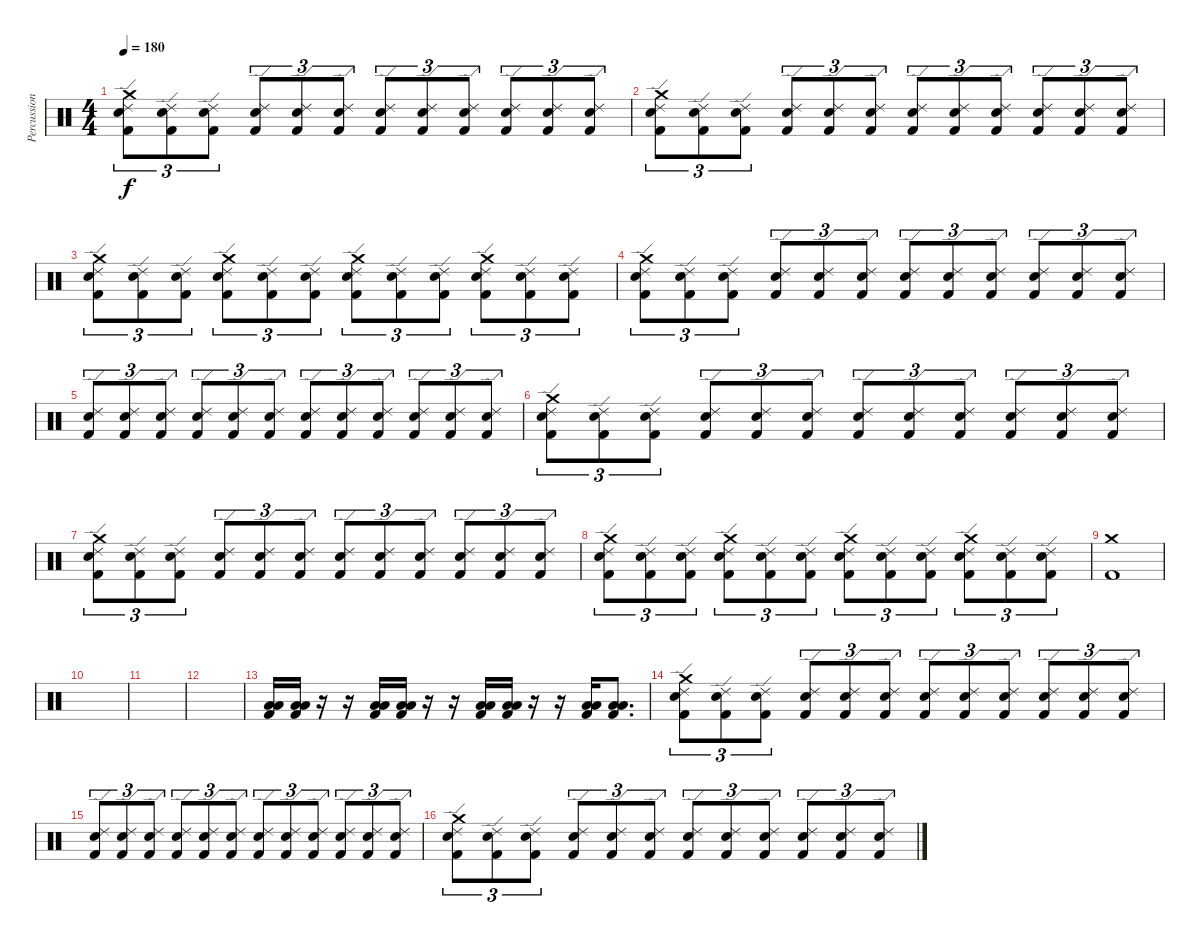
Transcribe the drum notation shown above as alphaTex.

\track ("Percussioni" "Percussion") {instrument percussion}
\staff {score}
\articulation defaults
\ts (4 4)
\tempo 180
\clef neutral
\ks c
("Crash medium (hit)" "Ride (edge) 2" "Snare (hit) 2" "Kick (hit) 2").8{tu (3 2) dy f} ("Ride (edge) 2" "Snare (hit) 2" "Kick (hit) 2").8{tu (3 2)} ("Ride (edge) 2" "Snare (hit) 2" "Kick (hit) 2").8{tu (3 2)} ("Ride (edge) 2" "Snare (hit) 2" "Kick (hit) 2").8{tu (3 2)} ("Ride (edge) 2" "Snare (hit) 2" "Kick (hit) 2").8{tu (3 2)} ("Ride (edge) 2" "Snare (hit) 2" "Kick (hit) 2").8{tu (3 2)} ("Ride (edge) 2" "Snare (hit) 2" "Kick (hit) 2").8{tu (3 2)} ("Ride (edge) 2" "Snare (hit) 2" "Kick (hit) 2").8{tu (3 2)} ("Ride (edge) 2" "Snare (hit) 2" "Kick (hit) 2").8{tu (3 2)} ("Ride (edge) 2" "Snare (hit) 2" "Kick (hit) 2").8{tu (3 2)} ("Ride (edge) 2" "Snare (hit) 2" "Kick (hit) 2").8{tu (3 2)} ("Ride (edge) 2" "Snare (hit) 2" "Kick (hit) 2").8{tu (3 2)} |
("Crash medium (hit)" "Ride (edge) 2" "Snare (hit) 2" "Kick (hit) 2").8{tu (3 2)} ("Ride (edge) 2" "Snare (hit) 2" "Kick (hit) 2").8{tu (3 2)} ("Ride (edge) 2" "Snare (hit) 2" "Kick (hit) 2").8{tu (3 2)} ("Ride (edge) 2" "Snare (hit) 2" "Kick (hit) 2").8{tu (3 2)} ("Ride (edge) 2" "Snare (hit) 2" "Kick (hit) 2").8{tu (3 2)} ("Ride (edge) 2" "Snare (hit) 2" "Kick (hit) 2").8{tu (3 2)} ("Ride (edge) 2" "Snare (hit) 2" "Kick (hit) 2").8{tu (3 2)} ("Ride (edge) 2" "Snare (hit) 2" "Kick (hit) 2").8{tu (3 2)} ("Ride (edge) 2" "Snare (hit) 2" "Kick (hit) 2").8{tu (3 2)} ("Ride (edge) 2" "Snare (hit) 2" "Kick (hit) 2").8{tu (3 2)} ("Ride (edge) 2" "Snare (hit) 2" "Kick (hit) 2").8{tu (3 2)} ("Ride (edge) 2" "Snare (hit) 2" "Kick (hit) 2").8{tu (3 2)} |
("Crash medium (hit)" "Ride (edge) 2" "Snare (hit) 2" "Kick (hit) 2").8{tu (3 2)} ("Ride (edge) 2" "Snare (hit) 2" "Kick (hit) 2").8{tu (3 2)} ("Ride (edge) 2" "Snare (hit) 2" "Kick (hit) 2").8{tu (3 2)} ("Crash medium (hit)" "Ride (edge) 2" "Snare (hit) 2" "Kick (hit) 2").8{tu (3 2)} ("Ride (edge) 2" "Snare (hit) 2" "Kick (hit) 2").8{tu (3 2)} ("Ride (edge) 2" "Snare (hit) 2" "Kick (hit) 2").8{tu (3 2)} ("Crash medium (hit)" "Ride (edge) 2" "Snare (hit) 2" "Kick (hit) 2").8{tu (3 2)} ("Ride (edge) 2" "Snare (hit) 2" "Kick (hit) 2").8{tu (3 2)} ("Ride (edge) 2" "Snare (hit) 2" "Kick (hit) 2").8{tu (3 2)} ("Crash medium (hit)" "Ride (edge) 2" "Snare (hit) 2" "Kick (hit) 2").8{tu (3 2)} ("Ride (edge) 2" "Snare (hit) 2" "Kick (hit) 2").8{tu (3 2)} ("Ride (edge) 2" "Snare (hit) 2" "Kick (hit) 2").8{tu (3 2)} |
("Crash medium (hit)" "Ride (edge) 2" "Snare (hit) 2" "Kick (hit) 2").8{tu (3 2)} ("Ride (edge) 2" "Snare (hit) 2" "Kick (hit) 2").8{tu (3 2)} ("Ride (edge) 2" "Snare (hit) 2" "Kick (hit) 2").8{tu (3 2)} ("Ride (edge) 2" "Snare (hit) 2" "Kick (hit) 2").8{tu (3 2)} ("Ride (edge) 2" "Snare (hit) 2" "Kick (hit) 2").8{tu (3 2)} ("Ride (edge) 2" "Snare (hit) 2" "Kick (hit) 2").8{tu (3 2)} ("Ride (edge) 2" "Snare (hit) 2" "Kick (hit) 2").8{tu (3 2)} ("Ride (edge) 2" "Snare (hit) 2" "Kick (hit) 2").8{tu (3 2)} ("Ride (edge) 2" "Snare (hit) 2" "Kick (hit) 2").8{tu (3 2)} ("Ride (edge) 2" "Snare (hit) 2" "Kick (hit) 2").8{tu (3 2)} ("Ride (edge) 2" "Snare (hit) 2" "Kick (hit) 2").8{tu (3 2)} ("Ride (edge) 2" "Snare (hit) 2" "Kick (hit) 2").8{tu (3 2)} |
("Ride (edge) 2" "Snare (hit) 2" "Kick (hit) 2").8{tu (3 2)} ("Ride (edge) 2" "Snare (hit) 2" "Kick (hit) 2").8{tu (3 2)} ("Ride (edge) 2" "Snare (hit) 2" "Kick (hit) 2").8{tu (3 2)} ("Ride (edge) 2" "Snare (hit) 2" "Kick (hit) 2").8{tu (3 2)} ("Ride (edge) 2" "Snare (hit) 2" "Kick (hit) 2").8{tu (3 2)} ("Ride (edge) 2" "Snare (hit) 2" "Kick (hit) 2").8{tu (3 2)} ("Ride (edge) 2" "Snare (hit) 2" "Kick (hit) 2").8{tu (3 2)} ("Ride (edge) 2" "Snare (hit) 2" "Kick (hit) 2").8{tu (3 2)} ("Ride (edge) 2" "Snare (hit) 2" "Kick (hit) 2").8{tu (3 2)} ("Ride (edge) 2" "Snare (hit) 2" "Kick (hit) 2").8{tu (3 2)} ("Ride (edge) 2" "Snare (hit) 2" "Kick (hit) 2").8{tu (3 2)} ("Ride (edge) 2" "Snare (hit) 2" "Kick (hit) 2").8{tu (3 2)} |
("Crash medium (hit)" "Ride (edge) 2" "Snare (hit) 2" "Kick (hit) 2").8{tu (3 2)} ("Ride (edge) 2" "Snare (hit) 2" "Kick (hit) 2").8{tu (3 2)} ("Ride (edge) 2" "Snare (hit) 2" "Kick (hit) 2").8{tu (3 2)} ("Ride (edge) 2" "Snare (hit) 2" "Kick (hit) 2").8{tu (3 2)} ("Ride (edge) 2" "Snare (hit) 2" "Kick (hit) 2").8{tu (3 2)} ("Ride (edge) 2" "Snare (hit) 2" "Kick (hit) 2").8{tu (3 2)} ("Ride (edge) 2" "Snare (hit) 2" "Kick (hit) 2").8{tu (3 2)} ("Ride (edge) 2" "Snare (hit) 2" "Kick (hit) 2").8{tu (3 2)} ("Ride (edge) 2" "Snare (hit) 2" "Kick (hit) 2").8{tu (3 2)} ("Ride (edge) 2" "Snare (hit) 2" "Kick (hit) 2").8{tu (3 2)} ("Ride (edge) 2" "Snare (hit) 2" "Kick (hit) 2").8{tu (3 2)} ("Ride (edge) 2" "Snare (hit) 2" "Kick (hit) 2").8{tu (3 2)} |
("Crash medium (hit)" "Ride (edge) 2" "Snare (hit) 2" "Kick (hit) 2").8{tu (3 2)} ("Ride (edge) 2" "Snare (hit) 2" "Kick (hit) 2").8{tu (3 2)} ("Ride (edge) 2" "Snare (hit) 2" "Kick (hit) 2").8{tu (3 2)} ("Ride (edge) 2" "Snare (hit) 2" "Kick (hit) 2").8{tu (3 2)} ("Ride (edge) 2" "Snare (hit) 2" "Kick (hit) 2").8{tu (3 2)} ("Ride (edge) 2" "Snare (hit) 2" "Kick (hit) 2").8{tu (3 2)} ("Ride (edge) 2" "Snare (hit) 2" "Kick (hit) 2").8{tu (3 2)} ("Ride (edge) 2" "Snare (hit) 2" "Kick (hit) 2").8{tu (3 2)} ("Ride (edge) 2" "Snare (hit) 2" "Kick (hit) 2").8{tu (3 2)} ("Ride (edge) 2" "Snare (hit) 2" "Kick (hit) 2").8{tu (3 2)} ("Ride (edge) 2" "Snare (hit) 2" "Kick (hit) 2").8{tu (3 2)} ("Ride (edge) 2" "Snare (hit) 2" "Kick (hit) 2").8{tu (3 2)} |
("Crash medium (hit)" "Ride (edge) 2" "Snare (hit) 2" "Kick (hit) 2").8{tu (3 2)} ("Ride (edge) 2" "Snare (hit) 2" "Kick (hit) 2").8{tu (3 2)} ("Ride (edge) 2" "Snare (hit) 2" "Kick (hit) 2").8{tu (3 2)} ("Crash medium (hit)" "Ride (edge) 2" "Snare (hit) 2" "Kick (hit) 2").8{tu (3 2)} ("Ride (edge) 2" "Snare (hit) 2" "Kick (hit) 2").8{tu (3 2)} ("Ride (edge) 2" "Snare (hit) 2" "Kick (hit) 2").8{tu (3 2)} ("Crash medium (hit)" "Ride (edge) 2" "Snare (hit) 2" "Kick (hit) 2").8{tu (3 2)} ("Ride (edge) 2" "Snare (hit) 2" "Kick (hit) 2").8{tu (3 2)} ("Ride (edge) 2" "Snare (hit) 2" "Kick (hit) 2").8{tu (3 2)} ("Crash medium (hit)" "Ride (edge) 2" "Snare (hit) 2" "Kick (hit) 2").8{tu (3 2)} ("Ride (edge) 2" "Snare (hit) 2" "Kick (hit) 2").8{tu (3 2)} ("Ride (edge) 2" "Snare (hit) 2" "Kick (hit) 2").8{tu (3 2)} |
("Crash medium (hit)" "Kick (hit) 2").1 |
|
|
|
("Low Tom (hit)" "Low Floor Tom (hit)" "Kick (hit) 2").16 ("Low Tom (hit)" "Low Floor Tom (hit)" "Kick (hit) 2").16 r.16 r.16 ("Low Tom (hit)" "Low Floor Tom (hit)" "Kick (hit) 2").16 ("Low Tom (hit)" "Low Floor Tom (hit)" "Kick (hit) 2").16 r.16 r.16 ("Low Tom (hit)" "Low Floor Tom (hit)" "Kick (hit) 2").16 ("Low Tom (hit)" "Low Floor Tom (hit)" "Kick (hit) 2").16 r.16 r.16 ("Low Tom (hit)" "Low Floor Tom (hit)" "Kick (hit) 2").16 ("Low Tom (hit)" "Low Floor Tom (hit)" "Kick (hit) 2").8{d} |
("Crash medium (hit)" "Ride (edge) 2" "Snare (hit) 2" "Kick (hit) 2").8{tu (3 2)} ("Ride (edge) 2" "Snare (hit) 2" "Kick (hit) 2").8{tu (3 2)} ("Ride (edge) 2" "Snare (hit) 2" "Kick (hit) 2").8{tu (3 2)} ("Ride (edge) 2" "Snare (hit) 2" "Kick (hit) 2").8{tu (3 2)} ("Ride (edge) 2" "Snare (hit) 2" "Kick (hit) 2").8{tu (3 2)} ("Ride (edge) 2" "Snare (hit) 2" "Kick (hit) 2").8{tu (3 2)} ("Ride (edge) 2" "Snare (hit) 2" "Kick (hit) 2").8{tu (3 2)} ("Ride (edge) 2" "Snare (hit) 2" "Kick (hit) 2").8{tu (3 2)} ("Ride (edge) 2" "Snare (hit) 2" "Kick (hit) 2").8{tu (3 2)} ("Ride (edge) 2" "Snare (hit) 2" "Kick (hit) 2").8{tu (3 2)} ("Ride (edge) 2" "Snare (hit) 2" "Kick (hit) 2").8{tu (3 2)} ("Ride (edge) 2" "Snare (hit) 2" "Kick (hit) 2").8{tu (3 2)} |
("Ride (edge) 2" "Snare (hit) 2" "Kick (hit) 2").8{tu (3 2)} ("Ride (edge) 2" "Snare (hit) 2" "Kick (hit) 2").8{tu (3 2)} ("Ride (edge) 2" "Snare (hit) 2" "Kick (hit) 2").8{tu (3 2)} ("Ride (edge) 2" "Snare (hit) 2" "Kick (hit) 2").8{tu (3 2)} ("Ride (edge) 2" "Snare (hit) 2" "Kick (hit) 2").8{tu (3 2)} ("Ride (edge) 2" "Snare (hit) 2" "Kick (hit) 2").8{tu (3 2)} ("Ride (edge) 2" "Snare (hit) 2" "Kick (hit) 2").8{tu (3 2)} ("Ride (edge) 2" "Snare (hit) 2" "Kick (hit) 2").8{tu (3 2)} ("Ride (edge) 2" "Snare (hit) 2" "Kick (hit) 2").8{tu (3 2)} ("Ride (edge) 2" "Snare (hit) 2" "Kick (hit) 2").8{tu (3 2)} ("Ride (edge) 2" "Snare (hit) 2" "Kick (hit) 2").8{tu (3 2)} ("Ride (edge) 2" "Snare (hit) 2" "Kick (hit) 2").8{tu (3 2)} |
("Crash medium (hit)" "Ride (edge) 2" "Snare (hit) 2" "Kick (hit) 2").8{tu (3 2)} ("Ride (edge) 2" "Snare (hit) 2" "Kick (hit) 2").8{tu (3 2)} ("Ride (edge) 2" "Snare (hit) 2" "Kick (hit) 2").8{tu (3 2)} ("Ride (edge) 2" "Snare (hit) 2" "Kick (hit) 2").8{tu (3 2)} ("Ride (edge) 2" "Snare (hit) 2" "Kick (hit) 2").8{tu (3 2)} ("Ride (edge) 2" "Snare (hit) 2" "Kick (hit) 2").8{tu (3 2)} ("Ride (edge) 2" "Snare (hit) 2" "Kick (hit) 2").8{tu (3 2)} ("Ride (edge) 2" "Snare (hit) 2" "Kick (hit) 2").8{tu (3 2)} ("Ride (edge) 2" "Snare (hit) 2" "Kick (hit) 2").8{tu (3 2)} ("Ride (edge) 2" "Snare (hit) 2" "Kick (hit) 2").8{tu (3 2)} ("Ride (edge) 2" "Snare (hit) 2" "Kick (hit) 2").8{tu (3 2)} ("Ride (edge) 2" "Snare (hit) 2" "Kick (hit) 2").8{tu (3 2)}
